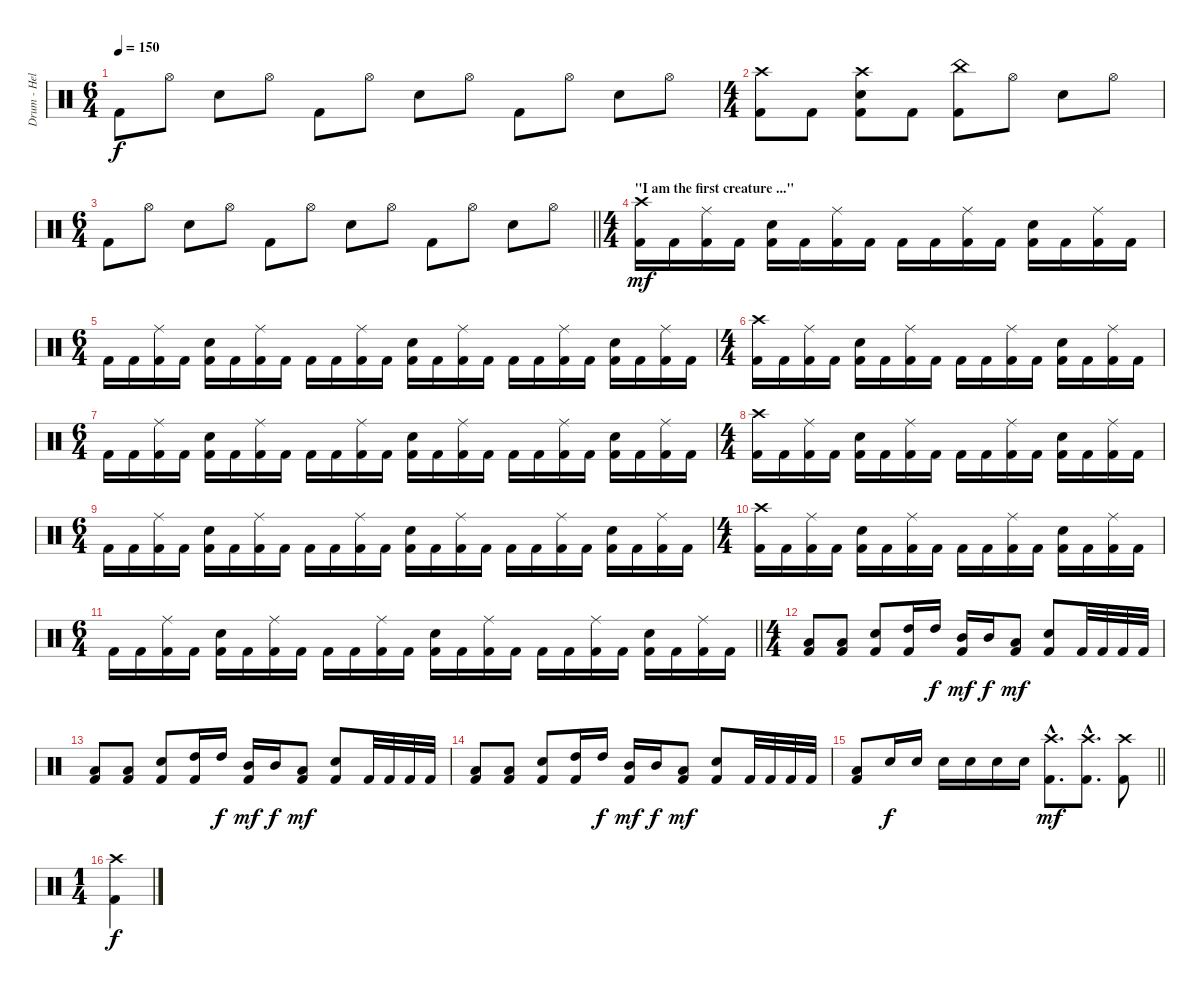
\track ("Drum - Hellhammer" "Drum - Hel") {instrument percussion}
\staff {score}
\articulation defaults
\ts (6 4)
\tempo 150
\clef neutral
\ks c "Kick (hit) 2".8{dy f} "Hi-Hat (open)".8 "Electric Snare (hit)".8 "Hi-Hat (open)".8 "Kick (hit) 2".8 "Hi-Hat (open)".8 "Electric Snare (hit)".8 "Hi-Hat (open)".8 "Kick (hit) 2".8 "Hi-Hat (open)".8 "Electric Snare (hit)".8 "Hi-Hat (open)".8
|
\ts (4 4)
("Crash high (hit)" "Kick (hit) 2").8 "Kick (hit) 2".8 ("Crash high (hit)" "Electric Snare (hit)" "Kick (hit) 2").8 "Kick (hit) 2".8 ("China (hit)" "Kick (hit) 2").8 "Hi-Hat (open)".8 "Electric Snare (hit)".8 "Hi-Hat (open)".8 |
\ts (6 4)
\barLineRight lightlight "Kick (hit) 2".8 "Hi-Hat (open)".8 "Electric Snare (hit)".8 "Hi-Hat (open)".8 "Kick (hit) 2".8 "Hi-Hat (open)".8 "Electric Snare (hit)".8 "Hi-Hat (open)".8 "Kick (hit) 2".8 "Hi-Hat (open)".8 "Electric Snare (hit)".8 "Hi-Hat (open)".8
|
\ts (4 4)
\section ("" "\"I am the first creature ...\"")
("Crash high (hit)" "Kick (hit) 2").16{dy mf} "Kick (hit) 2".16 ("Ride (middle)" "Kick (hit) 2").16 "Kick (hit) 2".16 ("Electric Snare (hit)" "Kick (hit) 2").16 "Kick (hit) 2".16 ("Ride (middle)" "Kick (hit) 2").16 "Kick (hit) 2".16 "Kick (hit) 2".16 "Kick (hit) 2".16 ("Ride (middle)" "Kick (hit) 2").16 "Kick (hit) 2".16 ("Electric Snare (hit)" "Kick (hit) 2").16 "Kick (hit) 2".16 ("Ride (middle)" "Kick (hit) 2").16 "Kick (hit) 2".16 |
\ts (6 4)
"Kick (hit) 2".16 "Kick (hit) 2".16 ("Ride (middle)" "Kick (hit) 2").16 "Kick (hit) 2".16 ("Electric Snare (hit)" "Kick (hit) 2").16 "Kick (hit) 2".16 ("Ride (middle)" "Kick (hit) 2").16 "Kick (hit) 2".16 "Kick (hit) 2".16 "Kick (hit) 2".16 ("Ride (middle)" "Kick (hit) 2").16 "Kick (hit) 2".16 ("Electric Snare (hit)" "Kick (hit) 2").16 "Kick (hit) 2".16 ("Ride (middle)" "Kick (hit) 2").16 "Kick (hit) 2".16 "Kick (hit) 2".16 "Kick (hit) 2".16 ("Ride (middle)" "Kick (hit) 2").16 "Kick (hit) 2".16 ("Electric Snare (hit)" "Kick (hit) 2").16 "Kick (hit) 2".16 ("Ride (middle)" "Kick (hit) 2").16 "Kick (hit) 2".16 |
\ts (4 4)
("Crash high (hit)" "Kick (hit) 2").16 "Kick (hit) 2".16 ("Ride (middle)" "Kick (hit) 2").16 "Kick (hit) 2".16 ("Electric Snare (hit)" "Kick (hit) 2").16 "Kick (hit) 2".16 ("Ride (middle)" "Kick (hit) 2").16 "Kick (hit) 2".16 "Kick (hit) 2".16 "Kick (hit) 2".16 ("Ride (middle)" "Kick (hit) 2").16 "Kick (hit) 2".16 ("Electric Snare (hit)" "Kick (hit) 2").16 "Kick (hit) 2".16 ("Ride (middle)" "Kick (hit) 2").16 "Kick (hit) 2".16 |
\ts (6 4)
"Kick (hit) 2".16 "Kick (hit) 2".16 ("Ride (middle)" "Kick (hit) 2").16 "Kick (hit) 2".16 ("Electric Snare (hit)" "Kick (hit) 2").16 "Kick (hit) 2".16 ("Ride (middle)" "Kick (hit) 2").16 "Kick (hit) 2".16 "Kick (hit) 2".16 "Kick (hit) 2".16 ("Ride (middle)" "Kick (hit) 2").16 "Kick (hit) 2".16 ("Electric Snare (hit)" "Kick (hit) 2").16 "Kick (hit) 2".16 ("Ride (middle)" "Kick (hit) 2").16 "Kick (hit) 2".16 "Kick (hit) 2".16 "Kick (hit) 2".16 ("Ride (middle)" "Kick (hit) 2").16 "Kick (hit) 2".16 ("Electric Snare (hit)" "Kick (hit) 2").16 "Kick (hit) 2".16 ("Ride (middle)" "Kick (hit) 2").16 "Kick (hit) 2".16 |
\ts (4 4)
("Crash high (hit)" "Kick (hit) 2").16 "Kick (hit) 2".16 ("Ride (middle)" "Kick (hit) 2").16 "Kick (hit) 2".16 ("Electric Snare (hit)" "Kick (hit) 2").16 "Kick (hit) 2".16 ("Ride (middle)" "Kick (hit) 2").16 "Kick (hit) 2".16 "Kick (hit) 2".16 "Kick (hit) 2".16 ("Ride (middle)" "Kick (hit) 2").16 "Kick (hit) 2".16 ("Electric Snare (hit)" "Kick (hit) 2").16 "Kick (hit) 2".16 ("Ride (middle)" "Kick (hit) 2").16 "Kick (hit) 2".16 |
\ts (6 4)
"Kick (hit) 2".16 "Kick (hit) 2".16 ("Ride (middle)" "Kick (hit) 2").16 "Kick (hit) 2".16 ("Electric Snare (hit)" "Kick (hit) 2").16 "Kick (hit) 2".16 ("Ride (middle)" "Kick (hit) 2").16 "Kick (hit) 2".16 "Kick (hit) 2".16 "Kick (hit) 2".16 ("Ride (middle)" "Kick (hit) 2").16 "Kick (hit) 2".16 ("Electric Snare (hit)" "Kick (hit) 2").16 "Kick (hit) 2".16 ("Ride (middle)" "Kick (hit) 2").16 "Kick (hit) 2".16 "Kick (hit) 2".16 "Kick (hit) 2".16 ("Ride (middle)" "Kick (hit) 2").16 "Kick (hit) 2".16 ("Electric Snare (hit)" "Kick (hit) 2").16 "Kick (hit) 2".16 ("Ride (middle)" "Kick (hit) 2").16 "Kick (hit) 2".16 |
\ts (4 4)
("Crash high (hit)" "Kick (hit) 2").16 "Kick (hit) 2".16 ("Ride (middle)" "Kick (hit) 2").16 "Kick (hit) 2".16 ("Electric Snare (hit)" "Kick (hit) 2").16 "Kick (hit) 2".16 ("Ride (middle)" "Kick (hit) 2").16 "Kick (hit) 2".16 "Kick (hit) 2".16 "Kick (hit) 2".16 ("Ride (middle)" "Kick (hit) 2").16 "Kick (hit) 2".16 ("Electric Snare (hit)" "Kick (hit) 2").16 "Kick (hit) 2".16 ("Ride (middle)" "Kick (hit) 2").16 "Kick (hit) 2".16 |
\ts (6 4)
\barLineRight lightlight "Kick (hit) 2".16 "Kick (hit) 2".16
("Ride (middle)" "Kick (hit) 2").16 "Kick (hit) 2".16 ("Electric Snare (hit)" "Kick (hit) 2").16 "Kick (hit) 2".16 ("Ride (middle)" "Kick (hit) 2").16 "Kick (hit) 2".16 "Kick (hit) 2".16 "Kick (hit) 2".16 ("Ride (middle)" "Kick (hit) 2").16 "Kick (hit) 2".16 ("Electric Snare (hit)" "Kick (hit) 2").16 "Kick (hit) 2".16 ("Ride (middle)" "Kick (hit) 2").16 "Kick (hit) 2".16 "Kick (hit) 2".16 "Kick (hit) 2".16 ("Ride (middle)" "Kick (hit) 2").16 "Kick (hit) 2".16 ("Electric Snare (hit)" "Kick (hit) 2").16 "Kick (hit) 2".16 ("Ride (middle)" "Kick (hit) 2").16 "Kick (hit) 2".16 |
\ts (4 4)
\section ("" "")
("Low Tom (hit)" "Kick (hit) 2").8 ("Low Tom (hit)" "Kick (hit) 2").8 ("Electric Snare (hit)" "Kick (hit) 2").8 ("High Tom (hit)" "Kick (hit) 2").16 "High Tom (hit)".16{dy f} ("Mid Tom (hit)" "Kick (hit) 2").16{dy mf} "Mid Tom (hit)".16{dy f} ("Low Tom (hit)" "Kick (hit) 2").8{dy mf} ("Electric Snare (hit)" "Kick (hit) 2").8 "Kick (hit) 2".32 "Kick (hit) 2".32 "Kick (hit) 2".32 "Kick (hit) 2".32 |
("Low Tom (hit)" "Kick (hit) 2").8 ("Low Tom (hit)" "Kick (hit) 2").8 ("Electric Snare (hit)" "Kick (hit) 2").8 ("High Tom (hit)" "Kick (hit) 2").16 "High Tom (hit)".16{dy f} ("Mid Tom (hit)" "Kick (hit) 2").16{dy mf} "Mid Tom (hit)".16{dy f} ("Low Tom (hit)" "Kick (hit) 2").8{dy mf} ("Electric Snare (hit)" "Kick (hit) 2").8 "Kick (hit) 2".32 "Kick (hit) 2".32 "Kick (hit) 2".32 "Kick (hit) 2".32 |
("Low Tom (hit)" "Kick (hit) 2").8 ("Low Tom (hit)" "Kick (hit) 2").8 ("Electric Snare (hit)" "Kick (hit) 2").8 ("High Tom (hit)" "Kick (hit) 2").16 "High Tom (hit)".16{dy f} ("Mid Tom (hit)" "Kick (hit) 2").16{dy mf} "Mid Tom (hit)".16{dy f} ("Low Tom (hit)" "Kick (hit) 2").8{dy mf} ("Electric Snare (hit)" "Kick (hit) 2").8 "Kick (hit) 2".32 "Kick (hit) 2".32 "Kick (hit) 2".32 "Kick (hit) 2".32 |
\barLineRight lightlight
("Low Tom (hit)" "Kick (hit) 2").8 "Electric Snare (hit)".16{dy f} "Electric Snare (hit)".16 "Electric Snare (hit)".16 "Electric Snare (hit)".16 "Electric Snare (hit)".16 "Electric Snare (hit)".16 ("Crash high (hit)"{hac} "Kick (hit) 2"{hac}).8{d dy mf} ("Crash high (hit)"{hac} "Kick (hit) 2"{hac}).8{d} ("Crash high (hit)" "Kick (hit) 2").8 |
\ts (1 4)
\section ("" "")
("Crash high (hit)" "Kick (hit) 2").4{dy f}
